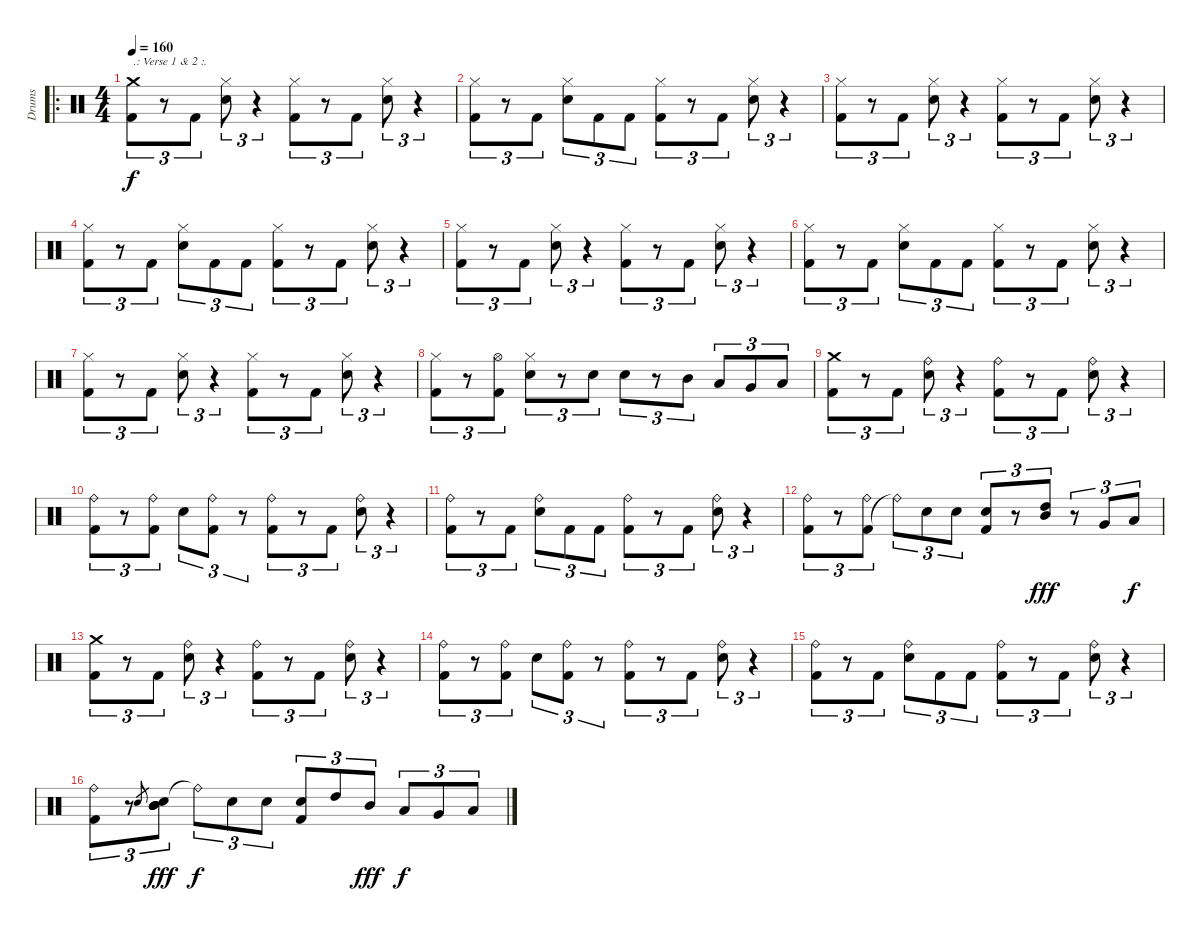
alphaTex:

\track ("Drums" "Drums") {instrument percussion}
\staff {score}
\articulation defaults
\ro
\ts (4 4)
\tempo 160
\clef neutral
\ks c
("Crash medium (hit)" "Kick (hit) 2").8{tu (3 2) txt ".: Verse 1 & 2 :." dy f} r.8{tu (3 2)} "Kick (hit) 2".8{tu (3 2)} ("Hi-Hat (closed)" "Electric Snare (hit)").8{tu (3 2)} r.4{tu (3 2)} ("Kick (hit) 2" "Hi-Hat (closed)").8{tu (3 2)} r.8{tu (3 2)} "Kick (hit) 2".8{tu (3 2)} ("Hi-Hat (closed)" "Electric Snare (hit)").8{tu (3 2)} r.4{tu (3 2)} |
("Hi-Hat (closed)" "Kick (hit) 2").8{tu (3 2)} r.8{tu (3 2)} "Kick (hit) 2".8{tu (3 2)} ("Hi-Hat (closed)" "Electric Snare (hit)").8{tu (3 2)} "Kick (hit) 2".8{tu (3 2)} "Kick (hit) 2".8{tu (3 2)} ("Kick (hit) 2" "Hi-Hat (closed)").8{tu (3 2)} r.8{tu (3 2)} "Kick (hit) 2".8{tu (3 2)} ("Hi-Hat (closed)" "Electric Snare (hit)").8{tu (3 2)} r.4{tu (3 2)} |
("Hi-Hat (closed)" "Kick (hit) 2").8{tu (3 2)} r.8{tu (3 2)} "Kick (hit) 2".8{tu (3 2)} ("Hi-Hat (closed)" "Electric Snare (hit)").8{tu (3 2)} r.4{tu (3 2)} ("Kick (hit) 2" "Hi-Hat (closed)").8{tu (3 2)} r.8{tu (3 2)} "Kick (hit) 2".8{tu (3 2)} ("Hi-Hat (closed)" "Electric Snare (hit)").8{tu (3 2)} r.4{tu (3 2)} |
("Hi-Hat (closed)" "Kick (hit) 2").8{tu (3 2)} r.8{tu (3 2)} "Kick (hit) 2".8{tu (3 2)} ("Hi-Hat (closed)" "Electric Snare (hit)").8{tu (3 2)} "Kick (hit) 2".8{tu (3 2)} "Kick (hit) 2".8{tu (3 2)} ("Kick (hit) 2" "Hi-Hat (closed)").8{tu (3 2)} r.8{tu (3 2)} "Kick (hit) 2".8{tu (3 2)} ("Hi-Hat (closed)" "Electric Snare (hit)").8{tu (3 2)} r.4{tu (3 2)} |
("Hi-Hat (closed)" "Kick (hit) 2").8{tu (3 2)} r.8{tu (3 2)} "Kick (hit) 2".8{tu (3 2)} ("Hi-Hat (closed)" "Electric Snare (hit)").8{tu (3 2)} r.4{tu (3 2)} ("Kick (hit) 2" "Hi-Hat (closed)").8{tu (3 2)} r.8{tu (3 2)} "Kick (hit) 2".8{tu (3 2)} ("Hi-Hat (closed)" "Electric Snare (hit)").8{tu (3 2)} r.4{tu (3 2)} |
("Hi-Hat (closed)" "Kick (hit) 2").8{tu (3 2)} r.8{tu (3 2)} "Kick (hit) 2".8{tu (3 2)} ("Hi-Hat (closed)" "Electric Snare (hit)").8{tu (3 2)} "Kick (hit) 2".8{tu (3 2)} "Kick (hit) 2".8{tu (3 2)} ("Kick (hit) 2" "Hi-Hat (closed)").8{tu (3 2)} r.8{tu (3 2)} "Kick (hit) 2".8{tu (3 2)} ("Hi-Hat (closed)" "Electric Snare (hit)").8{tu (3 2)} r.4{tu (3 2)} |
("Hi-Hat (closed)" "Kick (hit) 2").8{tu (3 2)} r.8{tu (3 2)} "Kick (hit) 2".8{tu (3 2)} ("Hi-Hat (closed)" "Electric Snare (hit)").8{tu (3 2)} r.4{tu (3 2)} ("Kick (hit) 2" "Hi-Hat (closed)").8{tu (3 2)} r.8{tu (3 2)} "Kick (hit) 2".8{tu (3 2)} ("Hi-Hat (closed)" "Electric Snare (hit)").8{tu (3 2)} r.4{tu (3 2)} |
("Hi-Hat (closed)" "Kick (hit) 2").8{tu (3 2)} r.8{tu (3 2)} ("Kick (hit) 2" "Hi-Hat (open)").8{tu (3 2)} ("Hi-Hat (closed)" "Electric Snare (hit)").8{tu (3 2)} r.8{tu (3 2)} "Electric Snare (hit)".8{tu (3 2)} "Electric Snare (hit)".8{tu (3 2)} r.8{tu (3 2)} "Mid Tom (hit)".8{tu (3 2)} "Low Tom (hit)".8{tu (3 2)} "Very Low Tom (hit)".8{tu (3 2)} "Low Floor Tom (hit)".8{tu (3 2)} |
("Crash medium (hit)" "Kick (hit) 2").8{tu (3 2)} r.8{tu (3 2)} "Kick (hit) 2".8{tu (3 2)} ("Ride (bell)" "Electric Snare (hit)").8{tu (3 2)} r.4{tu (3 2)} ("Kick (hit) 2" "Ride (bell)").8{tu (3 2)} r.8{tu (3 2)} "Kick (hit) 2".8{tu (3 2)} ("Ride (bell)" "Electric Snare (hit)").8{tu (3 2)} r.4{tu (3 2)} |
("Ride (bell)" "Kick (hit) 2").8{tu (3 2)} r.8{tu (3 2)} ("Kick (hit) 2" "Ride (bell)").8{tu (3 2)} "Electric Snare (hit)".8{tu (3 2)} ("Ride (bell)" "Kick (hit) 2").8{tu (3 2)} r.8{tu (3 2)} ("Kick (hit) 2" "Ride (bell)").8{tu (3 2)} r.8{tu (3 2)} "Kick (hit) 2".8{tu (3 2)} ("Ride (bell)" "Electric Snare (hit)").8{tu (3 2)} r.4{tu (3 2)} |
("Ride (bell)" "Kick (hit) 2").8{tu (3 2)} r.8{tu (3 2)} "Kick (hit) 2".8{tu (3 2)} ("Ride (bell)" "Electric Snare (hit)").8{tu (3 2)} "Kick (hit) 2".8{tu (3 2)} "Kick (hit) 2".8{tu (3 2)} ("Kick (hit) 2" "Ride (bell)").8{tu (3 2)} r.8{tu (3 2)} "Kick (hit) 2".8{tu (3 2)} ("Ride (bell)" "Electric Snare (hit)").8{tu (3 2)} r.4{tu (3 2)} |
("Ride (bell)" "Kick (hit) 2").8{tu (3 2)} r.8{tu (3 2)} ("Kick (hit) 2" "Ride (bell)").8{tu (3 2)} "Ride (bell)"{t}.8{tu (3 2)} "Electric Snare (hit)".8{tu (3 2)} "Electric Snare (hit)".8{tu (3 2)} ("Kick (hit) 2" "Electric Snare (hit)").8{tu (3 2)} r.8{tu (3 2)} ("High Tom (hit)" "Mid Tom (hit)").8{tu (3 2) dy fff} r.8{tu (3 2)} "Very Low Tom (hit)".8{tu (3 2)} "Low Floor Tom (hit)".8{tu (3 2) dy f} |
("Crash medium (hit)" "Kick (hit) 2").8{tu (3 2)} r.8{tu (3 2)} "Kick (hit) 2".8{tu (3 2)} ("Ride (bell)" "Electric Snare (hit)").8{tu (3 2)} r.4{tu (3 2)} ("Kick (hit) 2" "Ride (bell)").8{tu (3 2)} r.8{tu (3 2)} "Kick (hit) 2".8{tu (3 2)} ("Ride (bell)" "Electric Snare (hit)").8{tu (3 2)} r.4{tu (3 2)} |
("Ride (bell)" "Kick (hit) 2").8{tu (3 2)} r.8{tu (3 2)} ("Kick (hit) 2" "Ride (bell)").8{tu (3 2)} "Electric Snare (hit)".8{tu (3 2)} ("Ride (bell)" "Kick (hit) 2").8{tu (3 2)} r.8{tu (3 2)} ("Kick (hit) 2" "Ride (bell)").8{tu (3 2)} r.8{tu (3 2)} "Kick (hit) 2".8{tu (3 2)} ("Ride (bell)" "Electric Snare (hit)").8{tu (3 2)} r.4{tu (3 2)} |
("Ride (bell)" "Kick (hit) 2").8{tu (3 2)} r.8{tu (3 2)} "Kick (hit) 2".8{tu (3 2)} ("Ride (bell)" "Electric Snare (hit)").8{tu (3 2)} "Kick (hit) 2".8{tu (3 2)} "Kick (hit) 2".8{tu (3 2)} ("Kick (hit) 2" "Ride (bell)").8{tu (3 2)} r.8{tu (3 2)} "Kick (hit) 2".8{tu (3 2)} ("Ride (bell)" "Electric Snare (hit)").8{tu (3 2)} r.4{tu (3 2)} |
("Ride (bell)" "Kick (hit) 2").8{tu (3 2)} r.8{tu (3 2)} "Electric Snare (hit)".8{gr} ("Electric Snare (hit)" "Mid Tom (hit)" "Mid Tom (hit)" "Mid Tom (hit)").8{tu (3 2) dy fff} "Ride (bell)"{t}.8{tu (3 2) dy f} "Electric Snare (hit)".8{tu (3 2)} "Electric Snare (hit)".8{tu (3 2)} ("Kick (hit) 2" "Electric Snare (hit)").8{tu (3 2)} "High Tom (hit)".8{tu (3 2)} "Mid Tom (hit)".8{tu (3 2) dy fff} "Low Tom (hit)".8{tu (3 2) dy f} "Very Low Tom (hit)".8{tu (3 2)} "Low Floor Tom (hit)".8{tu (3 2)}
